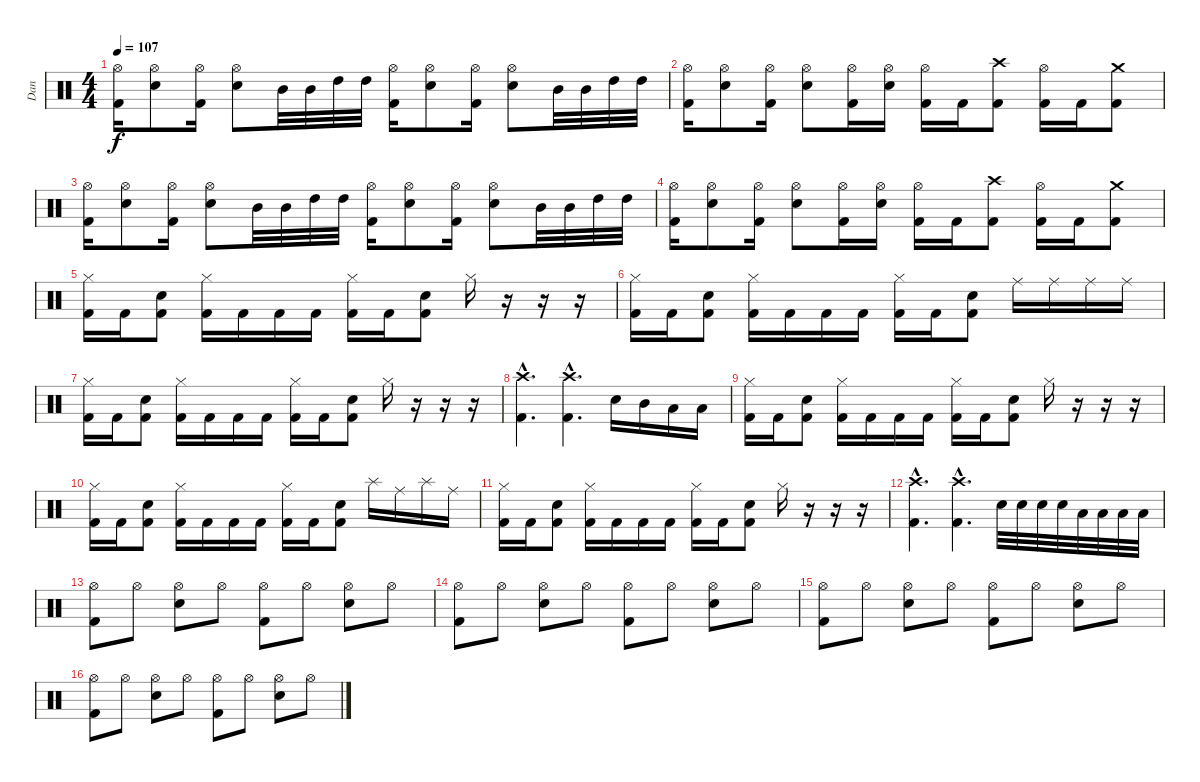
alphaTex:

\track ("Dan" "Dan") {instrument percussion}
\staff {score}
\articulation defaults
\ts (4 4)
\tempo 107
\clef neutral
\ks c
("Kick (hit) 2" "Hi-Hat (open)").16{dy f} ("Electric Snare (hit)" "Hi-Hat (open)").8 ("Kick (hit) 2" "Hi-Hat (open)").16 ("Electric Snare (hit)" "Hi-Hat (open)").8 "Mid Tom (hit)".32 "Mid Tom (hit)".32 "High Tom (hit)".32 "High Tom (hit)".32 ("Kick (hit) 2" "Hi-Hat (open)").16 ("Electric Snare (hit)" "Hi-Hat (open)").8 ("Kick (hit) 2" "Hi-Hat (open)").16 ("Electric Snare (hit)" "Hi-Hat (open)").8 "Mid Tom (hit)".32 "Mid Tom (hit)".32 "High Tom (hit)".32 "High Tom (hit)".32 |
("Kick (hit) 2" "Hi-Hat (open)").16 ("Electric Snare (hit)" "Hi-Hat (open)").8 ("Kick (hit) 2" "Hi-Hat (open)").16 ("Electric Snare (hit)" "Hi-Hat (open)").8 ("Kick (hit) 2" "Hi-Hat (open)").16 ("Electric Snare (hit)" "Hi-Hat (open)").16 ("Hi-Hat (open)" "Kick (hit) 2").16 "Kick (hit) 2".16 ("Crash high (hit)" "Kick (hit) 2").8 ("Hi-Hat (open)" "Kick (hit) 2").16 "Kick (hit) 2".16 ("Crash medium (hit)" "Kick (hit) 2").8 |
("Kick (hit) 2" "Hi-Hat (open)").16 ("Electric Snare (hit)" "Hi-Hat (open)").8 ("Kick (hit) 2" "Hi-Hat (open)").16 ("Electric Snare (hit)" "Hi-Hat (open)").8 "Mid Tom (hit)".32 "Mid Tom (hit)".32 "High Tom (hit)".32 "High Tom (hit)".32 ("Kick (hit) 2" "Hi-Hat (open)").16 ("Electric Snare (hit)" "Hi-Hat (open)").8 ("Kick (hit) 2" "Hi-Hat (open)").16 ("Electric Snare (hit)" "Hi-Hat (open)").8 "Mid Tom (hit)".32 "Mid Tom (hit)".32 "High Tom (hit)".32 "High Tom (hit)".32 |
("Kick (hit) 2" "Hi-Hat (open)").16 ("Electric Snare (hit)" "Hi-Hat (open)").8 ("Kick (hit) 2" "Hi-Hat (open)").16 ("Electric Snare (hit)" "Hi-Hat (open)").8 ("Kick (hit) 2" "Hi-Hat (open)").16 ("Electric Snare (hit)" "Hi-Hat (open)").16 ("Hi-Hat (open)" "Kick (hit) 2").16 "Kick (hit) 2".16 ("Crash high (hit)" "Kick (hit) 2").8 ("Hi-Hat (open)" "Kick (hit) 2").16 "Kick (hit) 2".16 ("Crash medium (hit)" "Kick (hit) 2").8 |
("Hi-Hat (closed)" "Kick (hit) 2").16 "Kick (hit) 2".16 ("Kick (hit) 2" "Electric Snare (hit)").8 ("Hi-Hat (closed)" "Kick (hit) 2").16 "Kick (hit) 2".16 "Kick (hit) 2".16 "Kick (hit) 2".16 ("Hi-Hat (closed)" "Kick (hit) 2").16 "Kick (hit) 2".16 ("Kick (hit) 2" "Electric Snare (hit)").8 "Hi-Hat (closed)".16 r.16 r.16 r.16 |
("Hi-Hat (closed)" "Kick (hit) 2").16 "Kick (hit) 2".16 ("Kick (hit) 2" "Electric Snare (hit)").8 ("Hi-Hat (closed)" "Kick (hit) 2").16 "Kick (hit) 2".16 "Kick (hit) 2".16 "Kick (hit) 2".16 ("Hi-Hat (closed)" "Kick (hit) 2").16 "Kick (hit) 2".16 ("Kick (hit) 2" "Electric Snare (hit)").8 "Ride (middle)".16 "Ride (middle)".16 "Ride (middle)".16 "Ride (middle)".16 |
("Hi-Hat (closed)" "Kick (hit) 2").16 "Kick (hit) 2".16 ("Kick (hit) 2" "Electric Snare (hit)").8 ("Hi-Hat (closed)" "Kick (hit) 2").16 "Kick (hit) 2".16 "Kick (hit) 2".16 "Kick (hit) 2".16 ("Hi-Hat (closed)" "Kick (hit) 2").16 "Kick (hit) 2".16 ("Kick (hit) 2" "Electric Snare (hit)").8 "Hi-Hat (closed)".16 r.16 r.16 r.16 |
("Crash high (hit)"{hac} "Kick (hit) 2"{hac}).4{d} ("Crash high (hit)"{hac} "Kick (hit) 2"{hac}).4{d} "Electric Snare (hit)".16 "Mid Tom (hit)".16 "Low Tom (hit)".16 "Low Tom (hit)".16 |
("Hi-Hat (closed)" "Kick (hit) 2").16 "Kick (hit) 2".16 ("Kick (hit) 2" "Electric Snare (hit)").8 ("Hi-Hat (closed)" "Kick (hit) 2").16 "Kick (hit) 2".16 "Kick (hit) 2".16 "Kick (hit) 2".16 ("Hi-Hat (closed)" "Kick (hit) 2").16 "Kick (hit) 2".16 ("Kick (hit) 2" "Electric Snare (hit)").8 "Hi-Hat (closed)".16 r.16 r.16 r.16 |
("Hi-Hat (closed)" "Kick (hit) 2").16 "Kick (hit) 2".16 ("Kick (hit) 2" "Electric Snare (hit)").8 ("Hi-Hat (closed)" "Kick (hit) 2").16 "Kick (hit) 2".16 "Kick (hit) 2".16 "Kick (hit) 2".16 ("Hi-Hat (closed)" "Kick (hit) 2").16 "Kick (hit) 2".16 ("Kick (hit) 2" "Electric Snare (hit)").8 "Splash (hit)".16 "Ride (middle)".16 "Splash (hit)".16 "Ride (middle)".16 |
("Hi-Hat (closed)" "Kick (hit) 2").16 "Kick (hit) 2".16 ("Kick (hit) 2" "Electric Snare (hit)").8 ("Hi-Hat (closed)" "Kick (hit) 2").16 "Kick (hit) 2".16 "Kick (hit) 2".16 "Kick (hit) 2".16 ("Hi-Hat (closed)" "Kick (hit) 2").16 "Kick (hit) 2".16 ("Kick (hit) 2" "Electric Snare (hit)").8 "Hi-Hat (closed)".16 r.16 r.16 r.16 |
("Crash high (hit)"{hac} "Kick (hit) 2"{hac}).4{d} ("Crash high (hit)"{hac} "Kick (hit) 2"{hac}).4{d} "Electric Snare (hit)".32 "Electric Snare (hit)".32 "Electric Snare (hit)".32 "Electric Snare (hit)".32 "Low Tom (hit)".32 "Low Tom (hit)".32 "Low Tom (hit)".32 "Low Tom (hit)".32 |
("Kick (hit) 2" "Hi-Hat (open)").8 "Hi-Hat (open)".8 ("Electric Snare (hit)" "Hi-Hat (open)").8 "Hi-Hat (open)".8 ("Kick (hit) 2" "Hi-Hat (open)").8 "Hi-Hat (open)".8 ("Electric Snare (hit)" "Hi-Hat (open)").8 "Hi-Hat (open)".8 |
("Kick (hit) 2" "Hi-Hat (open)").8 "Hi-Hat (open)".8 ("Electric Snare (hit)" "Hi-Hat (open)").8 "Hi-Hat (open)".8 ("Kick (hit) 2" "Hi-Hat (open)").8 "Hi-Hat (open)".8 ("Electric Snare (hit)" "Hi-Hat (open)").8 "Hi-Hat (open)".8 |
("Kick (hit) 2" "Hi-Hat (open)").8 "Hi-Hat (open)".8 ("Electric Snare (hit)" "Hi-Hat (open)").8 "Hi-Hat (open)".8 ("Kick (hit) 2" "Hi-Hat (open)").8 "Hi-Hat (open)".8 ("Electric Snare (hit)" "Hi-Hat (open)").8 "Hi-Hat (open)".8 |
("Kick (hit) 2" "Hi-Hat (open)").8 "Hi-Hat (open)".8 ("Electric Snare (hit)" "Hi-Hat (open)").8 "Hi-Hat (open)".8 ("Kick (hit) 2" "Hi-Hat (open)").8 "Hi-Hat (open)".8 ("Electric Snare (hit)" "Hi-Hat (open)").8 "Hi-Hat (open)".8
